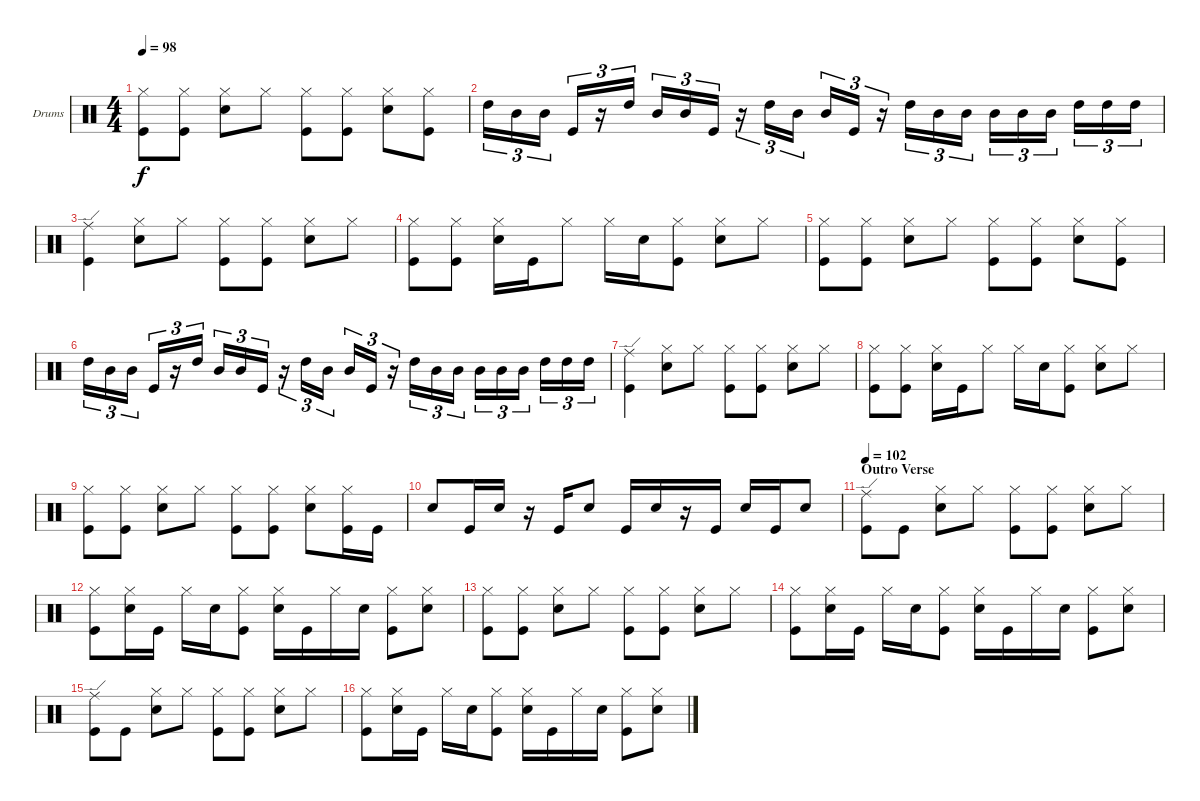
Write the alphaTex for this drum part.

\defaultSystemsLayout 4
\bracketExtendMode groupsimilarinstruments
\firstSystemTrackNameOrientation horizontal
\otherSystemsTrackNameOrientation horizontal
\track ("Drumkit (Bonham)" "Drums") {instrument percussion}
\staff {score}
\articulation defaults
\ts (4 4)
\tempo 98
\clef neutral
\scale
0.333333
\ks c
("Hi-Hat (closed)" "Kick (hit)").8{dy f} ("Hi-Hat (closed)" "Kick (hit)").8 ("Hi-Hat (closed)" "Snare (hit) 2").8 "Hi-Hat (closed)".8 ("Hi-Hat (closed)" "Kick (hit)").8 ("Hi-Hat (closed)" "Kick (hit)").8 ("Hi-Hat (closed)" "Snare (hit) 2").8 ("Hi-Hat (closed)" "Kick (hit)").8 |
\scale
0.333333 "High Tom (hit)".16{tu (3 2)} "Mid Tom (hit)".16{tu (3 2)} "Mid Tom (hit)".16{tu (3 2)} "Kick (hit)".16{tu (3 2)} r.16{tu (3 2)} "High Tom (hit)".16{tu (3 2)} "Mid Tom (hit)".16{tu (3 2)} "Mid Tom (hit)".16{tu (3 2)} "Kick (hit)".16{tu (3 2)} r.16{tu (3 2)} "High Tom (hit)".16{tu (3 2)} "Mid Tom (hit)".16{tu (3 2)} "Mid Tom (hit)".16{tu (3 2)} "Kick (hit)".16{tu (3 2)} r.16{tu (3 2)} "High Tom (hit)".16{tu (3 2)} "Mid Tom (hit)".16{tu (3 2)} "Mid Tom (hit)".16{tu (3 2)} "Mid Tom (hit)".16{tu (3 2)} "Mid Tom (hit)".16{tu (3 2)} "Mid Tom (hit)".16{tu (3 2)} "High Tom (hit)".16{tu (3 2)} "High Tom (hit)".16{tu (3 2)} "High Tom (hit)".16{tu (3 2)} |
\scale
0.333333 ("Ride (edge)" "Kick (hit)").4 ("Hi-Hat (closed)" "Snare (hit) 2").8 "Hi-Hat (closed)".8 ("Hi-Hat (closed)" "Kick (hit)").8 ("Hi-Hat (closed)" "Kick (hit)").8 ("Hi-Hat (closed)" "Snare (hit) 2").8 "Hi-Hat (closed)".8 |
\scale
0.333333 ("Hi-Hat (closed)" "Kick (hit)").8 ("Hi-Hat (closed)" "Kick (hit)").8 ("Hi-Hat (closed)" "Snare (hit) 2").16 "Kick (hit)".16 "Hi-Hat (closed)".8 "Hi-Hat (closed)".16 "Snare (hit) 2".16 ("Hi-Hat (closed)" "Kick (hit)").8 ("Hi-Hat (closed)" "Snare (hit) 2").8 "Hi-Hat (closed)".8 |
\scale
0.333333 ("Hi-Hat (closed)" "Kick (hit)").8 ("Hi-Hat (closed)" "Kick (hit)").8 ("Hi-Hat (closed)" "Snare (hit) 2").8 "Hi-Hat (closed)".8 ("Hi-Hat (closed)" "Kick (hit)").8 ("Hi-Hat (closed)" "Kick (hit)").8 ("Hi-Hat (closed)" "Snare (hit) 2").8 ("Hi-Hat (closed)" "Kick (hit)").8 |
\scale
0.333333 "High Tom (hit)".16{tu (3 2)} "Mid Tom (hit)".16{tu (3 2)} "Mid Tom (hit)".16{tu (3 2)} "Kick (hit)".16{tu (3 2)} r.16{tu (3 2)} "High Tom (hit)".16{tu (3 2)} "Mid Tom (hit)".16{tu (3 2)} "Mid Tom (hit)".16{tu (3 2)} "Kick (hit)".16{tu (3 2)} r.16{tu (3 2)} "High Tom (hit)".16{tu (3 2)} "Mid Tom (hit)".16{tu (3 2)} "Mid Tom (hit)".16{tu (3 2)} "Kick (hit)".16{tu (3 2)} r.16{tu (3 2)} "High Tom (hit)".16{tu (3 2)} "Mid Tom (hit)".16{tu (3 2)} "Mid Tom (hit)".16{tu (3 2)} "Mid Tom (hit)".16{tu (3 2)} "Mid Tom (hit)".16{tu (3 2)} "Mid Tom (hit)".16{tu (3 2)} "High Tom (hit)".16{tu (3 2)} "High Tom (hit)".16{tu (3 2)} "High Tom (hit)".16{tu (3 2)} |
\scale
0.333333 ("Ride (edge)" "Kick (hit)").4 ("Hi-Hat (closed)" "Snare (hit) 2").8 "Hi-Hat (closed)".8 ("Hi-Hat (closed)" "Kick (hit)").8 ("Hi-Hat (closed)" "Kick (hit)").8 ("Hi-Hat (closed)" "Snare (hit) 2").8 "Hi-Hat (closed)".8 |
\scale
0.333333 ("Hi-Hat (closed)" "Kick (hit)").8 ("Hi-Hat (closed)" "Kick (hit)").8 ("Hi-Hat (closed)" "Snare (hit) 2").16 "Kick (hit)".16 "Hi-Hat (closed)".8 "Hi-Hat (closed)".16 "Snare (hit) 2".16 ("Hi-Hat (closed)" "Kick (hit)").8 ("Hi-Hat (closed)" "Snare (hit) 2").8 "Hi-Hat (closed)".8 |
\scale
0.333333 ("Hi-Hat (closed)" "Kick (hit)").8 ("Hi-Hat (closed)" "Kick (hit)").8 ("Hi-Hat (closed)" "Snare (hit) 2").8 "Hi-Hat (closed)".8 ("Hi-Hat (closed)" "Kick (hit)").8 ("Hi-Hat (closed)" "Kick (hit)").8 ("Hi-Hat (closed)" "Snare (hit) 2").8 ("Hi-Hat (closed)" "Kick (hit)").16 "Kick (hit)".16 |
\scale
0.333333 "Snare (hit) 2".8 "Kick (hit)".16 "Snare (hit) 2".16 r.16 "Kick (hit)".16 "Snare (hit) 2".8 "Kick (hit)".16 "Snare (hit) 2".16 r.16 "Kick (hit)".16 "Snare (hit) 2".16 "Kick (hit)".16 "Snare (hit) 2".8 |
\section ("" "Outro Verse")
\tempo 102
\scale
0.333333 ("Ride (edge)" "Kick (hit)").8 "Kick (hit)".8 ("Hi-Hat (closed)" "Snare (hit) 2").8 "Hi-Hat (closed)".8 ("Hi-Hat (closed)" "Kick (hit)").8 ("Hi-Hat (closed)" "Kick (hit)").8 ("Hi-Hat (closed)" "Snare (hit) 2").8 "Hi-Hat (closed)".8 |
\scale
0.333333 ("Hi-Hat (closed)" "Kick (hit)").8 ("Hi-Hat (closed)" "Snare (hit) 2").16 "Kick (hit)".16 "Hi-Hat (closed)".16 "Snare (hit) 2".16 ("Hi-Hat (closed)" "Kick (hit)").8 ("Hi-Hat (closed)" "Snare (hit) 2").16 "Kick (hit)".16 "Hi-Hat (closed)".16 "Snare (hit) 2".16 ("Hi-Hat (closed)" "Kick (hit)").8 ("Hi-Hat (closed)" "Snare (hit) 2").8 |
\scale
0.333333 ("Hi-Hat (closed)" "Kick (hit)").8 ("Hi-Hat (closed)" "Kick (hit)").8 ("Hi-Hat (closed)" "Snare (hit) 2").8 "Hi-Hat (closed)".8 ("Hi-Hat (closed)" "Kick (hit)").8 ("Hi-Hat (closed)" "Kick (hit)").8 ("Hi-Hat (closed)" "Snare (hit) 2").8 "Hi-Hat (closed)".8 |
\scale
0.333333 ("Hi-Hat (closed)" "Kick (hit)").8 ("Hi-Hat (closed)" "Snare (hit) 2").16 "Kick (hit)".16 "Hi-Hat (closed)".16 "Snare (hit) 2".16 ("Hi-Hat (closed)" "Kick (hit)").8 ("Hi-Hat (closed)" "Snare (hit) 2").16 "Kick (hit)".16 "Hi-Hat (closed)".16 "Snare (hit) 2".16 ("Hi-Hat (closed)" "Kick (hit)").8 ("Hi-Hat (closed)" "Snare (hit) 2").8 |
\scale
0.333333 ("Ride (edge)" "Kick (hit)").8 "Kick (hit)".8 ("Hi-Hat (closed)" "Snare (hit) 2").8 "Hi-Hat (closed)".8 ("Hi-Hat (closed)" "Kick (hit)").8 ("Hi-Hat (closed)" "Kick (hit)").8 ("Hi-Hat (closed)" "Snare (hit) 2").8 "Hi-Hat (closed)".8 |
\scale
0.333333 ("Hi-Hat (closed)" "Kick (hit)").8 ("Hi-Hat (closed)" "Snare (hit) 2").16 "Kick (hit)".16 "Hi-Hat (closed)".16 "Snare (hit) 2".16 ("Hi-Hat (closed)" "Kick (hit)").8 ("Hi-Hat (closed)" "Snare (hit) 2").16 "Kick (hit)".16 "Hi-Hat (closed)".16 "Snare (hit) 2".16 ("Hi-Hat (closed)" "Kick (hit)").8 ("Hi-Hat (closed)" "Snare (hit) 2").8
